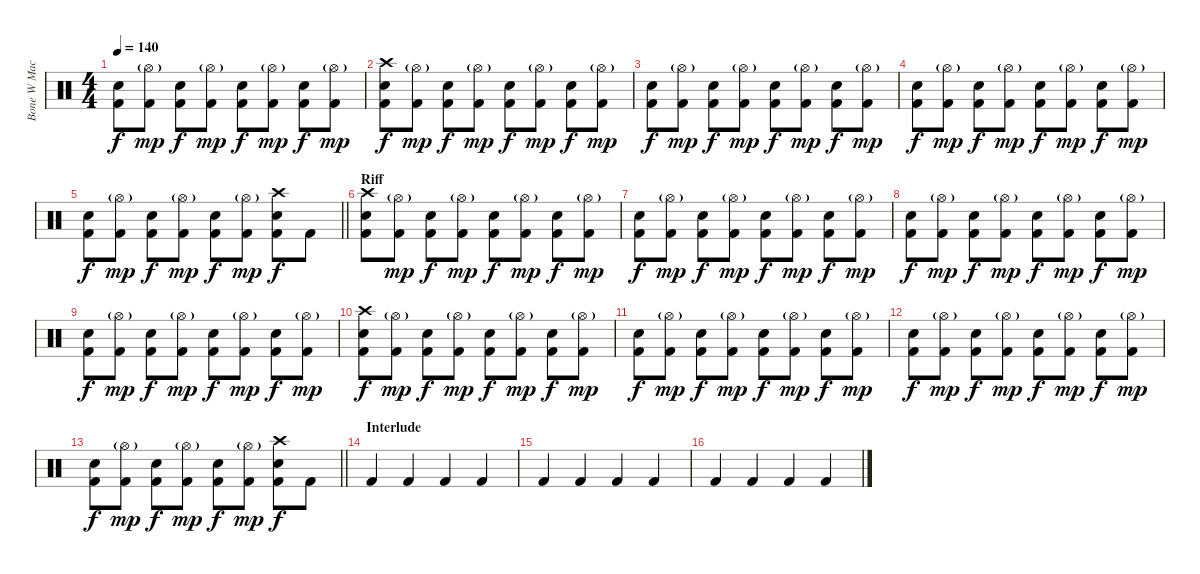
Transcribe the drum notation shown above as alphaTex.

\track ("Bone W Machine" "Bone W Mac") {instrument percussion}
\staff {score}
\articulation defaults
\ts (4 4)
\tempo 140
\clef neutral
\ks c
("Electric Snare (hit)" "Kick (hit) 2").8{dy f} ("Hi-Hat (open)"{g} "Kick (hit) 2").8{dy mp} ("Electric Snare (hit)" "Kick (hit) 2").8{dy f} ("Hi-Hat (open)"{g} "Kick (hit) 2").8{dy mp} ("Electric Snare (hit)" "Kick (hit) 2").8{dy f} ("Hi-Hat (open)"{g} "Kick (hit) 2").8{dy mp} ("Electric Snare (hit)" "Kick (hit) 2").8{dy f} ("Hi-Hat (open)"{g} "Kick (hit) 2").8{dy mp} |
("Crash high (hit)" "Electric Snare (hit)" "Kick (hit) 2").8{dy f} ("Hi-Hat (open)"{g} "Kick (hit) 2").8{dy mp} ("Electric Snare (hit)" "Kick (hit) 2").8{dy f} ("Hi-Hat (open)"{g} "Kick (hit) 2").8{dy mp} ("Electric Snare (hit)" "Kick (hit) 2").8{dy f} ("Hi-Hat (open)"{g} "Kick (hit) 2").8{dy mp} ("Electric Snare (hit)" "Kick (hit) 2").8{dy f} ("Hi-Hat (open)"{g} "Kick (hit) 2").8{dy mp} |
("Electric Snare (hit)" "Kick (hit) 2").8{dy f} ("Hi-Hat (open)"{g} "Kick (hit) 2").8{dy mp} ("Electric Snare (hit)" "Kick (hit) 2").8{dy f} ("Hi-Hat (open)"{g} "Kick (hit) 2").8{dy mp} ("Electric Snare (hit)" "Kick (hit) 2").8{dy f} ("Hi-Hat (open)"{g} "Kick (hit) 2").8{dy mp} ("Electric Snare (hit)" "Kick (hit) 2").8{dy f} ("Hi-Hat (open)"{g} "Kick (hit) 2").8{dy mp} |
("Electric Snare (hit)" "Kick (hit) 2").8{dy f} ("Hi-Hat (open)"{g} "Kick (hit) 2").8{dy mp} ("Electric Snare (hit)" "Kick (hit) 2").8{dy f} ("Hi-Hat (open)"{g} "Kick (hit) 2").8{dy mp} ("Electric Snare (hit)" "Kick (hit) 2").8{dy f} ("Hi-Hat (open)"{g} "Kick (hit) 2").8{dy mp} ("Electric Snare (hit)" "Kick (hit) 2").8{dy f} ("Hi-Hat (open)"{g} "Kick (hit) 2").8{dy mp} |
\barLineRight lightlight
("Electric Snare (hit)" "Kick (hit) 2").8{dy f} ("Hi-Hat (open)"{g} "Kick (hit) 2").8{dy mp} ("Electric Snare (hit)" "Kick (hit) 2").8{dy f} ("Hi-Hat (open)"{g} "Kick (hit) 2").8{dy mp} ("Electric Snare (hit)" "Kick (hit) 2").8{dy f} ("Hi-Hat (open)"{g} "Kick (hit) 2").8{dy mp} ("Crash high (hit)" "Electric Snare (hit)" "Kick (hit) 2").8{dy f} "Kick (hit) 2".8 |
\section ("" "Riff")
("Crash high (hit)" "Electric Snare (hit)" "Kick (hit) 2").8 ("Hi-Hat (open)"{g} "Kick (hit) 2").8{dy mp} ("Electric Snare (hit)" "Kick (hit) 2").8{dy f} ("Hi-Hat (open)"{g} "Kick (hit) 2").8{dy mp} ("Electric Snare (hit)" "Kick (hit) 2").8{dy f} ("Hi-Hat (open)"{g} "Kick (hit) 2").8{dy mp} ("Electric Snare (hit)" "Kick (hit) 2").8{dy f} ("Hi-Hat (open)"{g} "Kick (hit) 2").8{dy mp} |
("Electric Snare (hit)" "Kick (hit) 2").8{dy f} ("Hi-Hat (open)"{g} "Kick (hit) 2").8{dy mp} ("Electric Snare (hit)" "Kick (hit) 2").8{dy f} ("Hi-Hat (open)"{g} "Kick (hit) 2").8{dy mp} ("Electric Snare (hit)" "Kick (hit) 2").8{dy f} ("Hi-Hat (open)"{g} "Kick (hit) 2").8{dy mp} ("Electric Snare (hit)" "Kick (hit) 2").8{dy f} ("Hi-Hat (open)"{g} "Kick (hit) 2").8{dy mp} |
("Electric Snare (hit)" "Kick (hit) 2").8{dy f} ("Hi-Hat (open)"{g} "Kick (hit) 2").8{dy mp} ("Electric Snare (hit)" "Kick (hit) 2").8{dy f} ("Hi-Hat (open)"{g} "Kick (hit) 2").8{dy mp} ("Electric Snare (hit)" "Kick (hit) 2").8{dy f} ("Hi-Hat (open)"{g} "Kick (hit) 2").8{dy mp} ("Electric Snare (hit)" "Kick (hit) 2").8{dy f} ("Hi-Hat (open)"{g} "Kick (hit) 2").8{dy mp} |
("Electric Snare (hit)" "Kick (hit) 2").8{dy f} ("Hi-Hat (open)"{g} "Kick (hit) 2").8{dy mp} ("Electric Snare (hit)" "Kick (hit) 2").8{dy f} ("Hi-Hat (open)"{g} "Kick (hit) 2").8{dy mp} ("Electric Snare (hit)" "Kick (hit) 2").8{dy f} ("Hi-Hat (open)"{g} "Kick (hit) 2").8{dy mp} ("Electric Snare (hit)" "Kick (hit) 2").8{dy f} ("Hi-Hat (open)"{g} "Kick (hit) 2").8{dy mp} |
("Crash high (hit)" "Electric Snare (hit)" "Kick (hit) 2").8{dy f} ("Hi-Hat (open)"{g} "Kick (hit) 2").8{dy mp} ("Electric Snare (hit)" "Kick (hit) 2").8{dy f} ("Hi-Hat (open)"{g} "Kick (hit) 2").8{dy mp} ("Electric Snare (hit)" "Kick (hit) 2").8{dy f} ("Hi-Hat (open)"{g} "Kick (hit) 2").8{dy mp} ("Electric Snare (hit)" "Kick (hit) 2").8{dy f} ("Hi-Hat (open)"{g} "Kick (hit) 2").8{dy mp} |
("Electric Snare (hit)" "Kick (hit) 2").8{dy f} ("Hi-Hat (open)"{g} "Kick (hit) 2").8{dy mp} ("Electric Snare (hit)" "Kick (hit) 2").8{dy f} ("Hi-Hat (open)"{g} "Kick (hit) 2").8{dy mp} ("Electric Snare (hit)" "Kick (hit) 2").8{dy f} ("Hi-Hat (open)"{g} "Kick (hit) 2").8{dy mp} ("Electric Snare (hit)" "Kick (hit) 2").8{dy f} ("Hi-Hat (open)"{g} "Kick (hit) 2").8{dy mp} |
("Electric Snare (hit)" "Kick (hit) 2").8{dy f} ("Hi-Hat (open)"{g} "Kick (hit) 2").8{dy mp} ("Electric Snare (hit)" "Kick (hit) 2").8{dy f} ("Hi-Hat (open)"{g} "Kick (hit) 2").8{dy mp} ("Electric Snare (hit)" "Kick (hit) 2").8{dy f} ("Hi-Hat (open)"{g} "Kick (hit) 2").8{dy mp} ("Electric Snare (hit)" "Kick (hit) 2").8{dy f} ("Hi-Hat (open)"{g} "Kick (hit) 2").8{dy mp} |
\barLineRight lightlight
("Electric Snare (hit)" "Kick (hit) 2").8{dy f} ("Hi-Hat (open)"{g} "Kick (hit) 2").8{dy mp} ("Electric Snare (hit)" "Kick (hit) 2").8{dy f} ("Hi-Hat (open)"{g} "Kick (hit) 2").8{dy mp} ("Electric Snare (hit)" "Kick (hit) 2").8{dy f} ("Hi-Hat (open)"{g} "Kick (hit) 2").8{dy mp} ("Crash high (hit)" "Electric Snare (hit)" "Kick (hit) 2").8{dy f} "Kick (hit) 2".8 |
\section ("" "Interlude")
"Kick (hit) 2".4 "Kick (hit) 2".4 "Kick (hit) 2".4 "Kick (hit) 2".4 |
"Kick (hit) 2".4 "Kick (hit) 2".4 "Kick (hit) 2".4 "Kick (hit) 2".4 |
"Kick (hit) 2".4 "Kick (hit) 2".4 "Kick (hit) 2".4 "Kick (hit) 2".4
